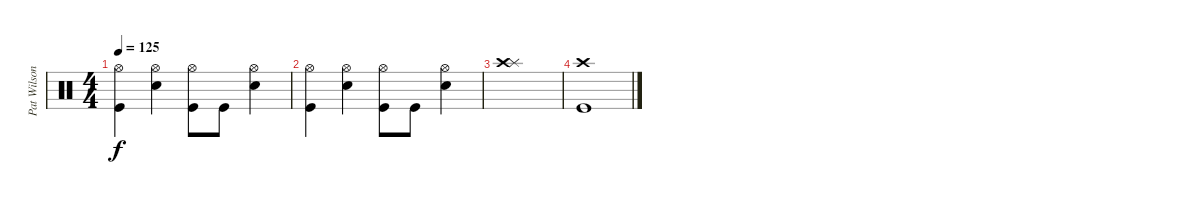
\track ("Pat Wilson-Drums" "Pat Wilson") {instrument percussion}
\staff {score}
\articulation defaults
\ts (4 4)
\tempo 125
\clef neutral
\ks c
("Kick (hit)" "Hi-Hat (open)").4{dy f} ("Snare (hit) 2" "Hi-Hat (open)").4 ("Kick (hit)" "Hi-Hat (open)").8 "Kick (hit)".8 ("Snare (hit) 2" "Hi-Hat (open)").4 |
("Kick (hit)" "Hi-Hat (open)").4 ("Snare (hit) 2" "Hi-Hat (open)").4 ("Kick (hit)" "Hi-Hat (open)").8 "Kick (hit)".8 ("Snare (hit) 2" "Hi-Hat (open)").4 |
("Splash (hit)" "Crash high (hit)").1 |
("Kick (hit)" "Crash high (hit)").1
